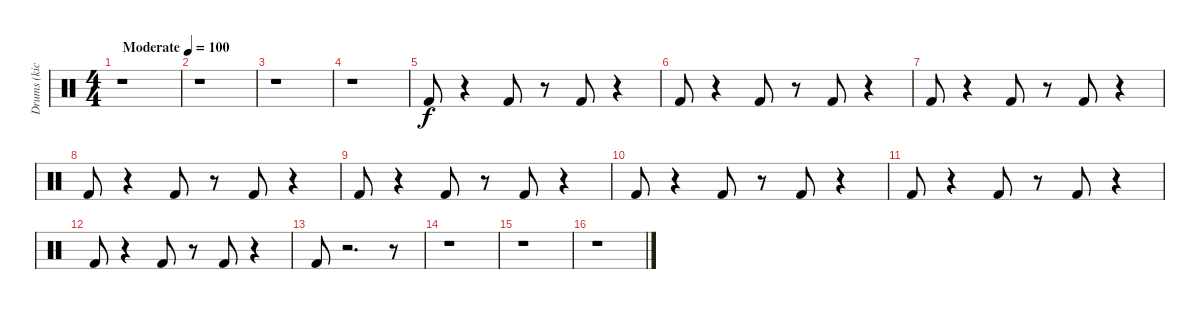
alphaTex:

\track ("Drums (kick)" "Drums (kic") {instrument percussion}
\staff {score}
\articulation defaults
\ts (4 4)
\tempo (100 "Moderate")
\clef neutral
\ks c
r.1{dy f} |
r.1 |
r.1 |
r.1 |
"Kick (hit) 2".8 r.4 "Kick (hit) 2".8 r.8 "Kick (hit) 2".8 r.4 |
"Kick (hit) 2".8 r.4 "Kick (hit) 2".8 r.8 "Kick (hit) 2".8 r.4 |
"Kick (hit) 2".8 r.4 "Kick (hit) 2".8 r.8 "Kick (hit) 2".8 r.4 |
"Kick (hit) 2".8 r.4 "Kick (hit) 2".8 r.8 "Kick (hit) 2".8 r.4 |
"Kick (hit) 2".8 r.4 "Kick (hit) 2".8 r.8 "Kick (hit) 2".8 r.4 |
"Kick (hit) 2".8 r.4 "Kick (hit) 2".8 r.8 "Kick (hit) 2".8 r.4 |
"Kick (hit) 2".8 r.4 "Kick (hit) 2".8 r.8 "Kick (hit) 2".8 r.4 |
"Kick (hit) 2".8 r.4 "Kick (hit) 2".8 r.8 "Kick (hit) 2".8 r.4 |
"Kick (hit) 2".8 r.2{d} r.8 |
r.1 |
r.1 |
r.1
